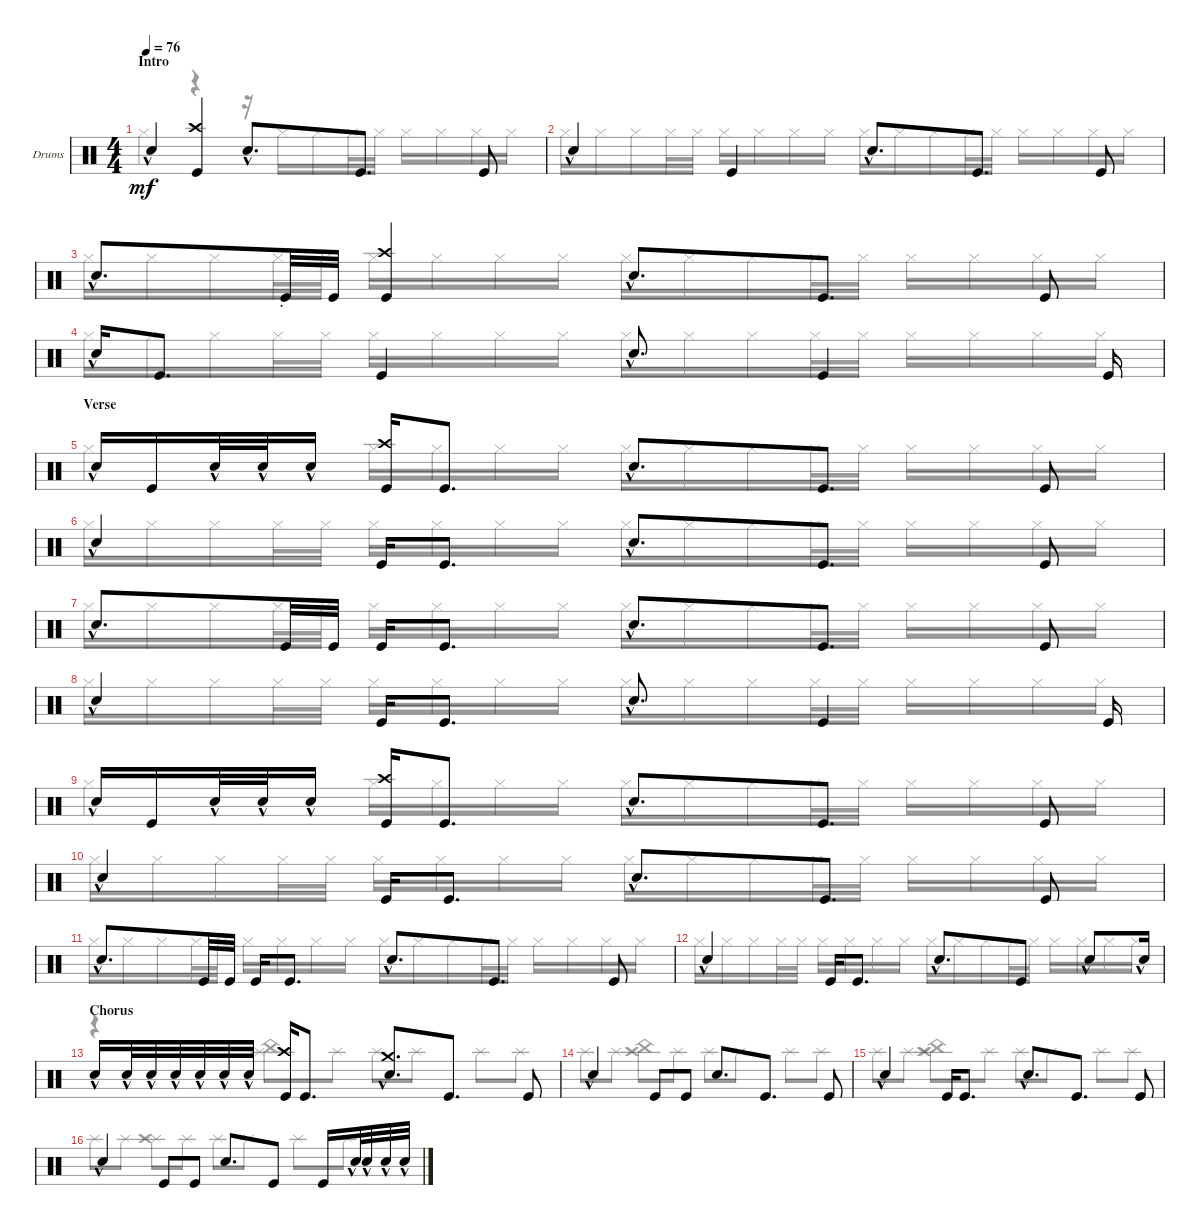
\defaultSystemsLayout 4
\bracketExtendMode groupsimilarinstruments
\firstSystemTrackNameOrientation horizontal
\otherSystemsTrackNameOrientation horizontal
\track ("Drumkit" "Drums") {instrument percussion}
\staff {score}
\articulation defaults
\voice
\ts (4 4)
\section ("" "Intro")
\tempo 76
\clef neutral
\ks c "Snare (hit) 2"{hac}.4{dy mf}
("Crash high (hit)" "Kick (hit)").4 "Snare (hit) 2"{hac}.8{d} "Kick (hit)".8{d} "Kick (hit)".8 |
"Snare (hit) 2"{hac}.4 "Kick (hit)".4 "Snare (hit) 2"{hac}.8{d} "Kick (hit)".8{d} "Kick (hit)".8 |
"Snare (hit) 2"{hac}.8{d} "Kick (hit)"{st}.32 "Kick (hit)".32 ("Kick (hit)" "Crash high (hit)").4 "Snare (hit) 2"{hac}.8{d} "Kick (hit)".8{d} "Kick (hit)".8 |
"Snare (hit) 2"{hac}.16 "Kick (hit)".8{d} "Kick (hit)".4 "Snare (hit) 2"{hac}.8{d} "Kick (hit)".4 "Kick (hit)".16 |
\section ("" "Verse")
"Snare (hit) 2"{hac}.16 "Kick (hit)".16 "Snare (hit) 2"{hac}.32 "Snare (hit) 2"{hac}.32 "Snare (hit) 2"{hac}.16 ("Kick (hit)" "Crash high (hit)").16 "Kick (hit)".8{d} "Snare (hit) 2"{hac}.8{d} "Kick (hit)".8{d} "Kick (hit)".8 |
"Snare (hit) 2"{hac}.4 "Kick (hit)".16 "Kick (hit)".8{d} "Snare (hit) 2"{hac}.8{d} "Kick (hit)".8{d} "Kick (hit)".8 |
"Snare (hit) 2"{hac}.8{d} "Kick (hit)".32 "Kick (hit)".32 "Kick (hit)".16 "Kick (hit)".8{d} "Snare (hit) 2"{hac}.8{d} "Kick (hit)".8{d} "Kick (hit)".8 |
"Snare (hit) 2"{hac}.4 "Kick (hit)".16 "Kick (hit)".8{d} "Snare (hit) 2"{hac}.8{d} "Kick (hit)".4 "Kick (hit)".16 |
"Snare (hit) 2"{hac}.16 "Kick (hit)".16 "Snare (hit) 2"{hac}.32 "Snare (hit) 2"{hac}.32 "Snare (hit) 2"{hac}.16 ("Kick (hit)" "Crash high (hit)").16 "Kick (hit)".8{d} "Snare (hit) 2"{hac}.8{d} "Kick (hit)".8{d} "Kick (hit)".8 |
"Snare (hit) 2"{hac}.4 "Kick (hit)".16 "Kick (hit)".8{d} "Snare (hit) 2"{hac}.8{d} "Kick (hit)".8{d} "Kick (hit)".8 |
"Snare (hit) 2"{hac}.8{d} "Kick (hit)".32 "Kick (hit)".32 "Kick (hit)".16 "Kick (hit)".8{d} "Snare (hit) 2"{hac}.8{d} "Kick (hit)".8{d} "Kick (hit)".8 |
"Snare (hit) 2"{hac}.4 "Kick (hit)".16 "Kick (hit)".8{d} "Snare (hit) 2"{hac}.8{d} "Kick (hit)".8 "Snare (hit) 2"{hac}.8 "Snare (hit) 2"{hac}.16 |
\section ("" "Chorus")
"Snare (hit) 2"{hac}.16 "Snare (hit) 2"{hac}.32 "Snare (hit) 2"{hac}.32 "Snare (hit) 2"{hac}.32 "Snare (hit) 2"{hac}.32 "Snare (hit) 2"{hac}.32 "Snare (hit) 2"{hac}.32 ("Kick (hit)" "Crash high (hit)").16 "Kick (hit)".8{d} ("Snare (hit) 2"{hac} "Crash medium (hit)").8{d} "Kick (hit)".8{d} "Kick (hit)".8 |
"Snare (hit) 2"{hac}.4 "Kick (hit)".8 "Kick (hit)".8 "Snare (hit) 2".8{d} "Kick (hit)".8{d} "Kick (hit)".8 |
"Snare (hit) 2"{hac}.4 "Kick (hit)".16 "Kick (hit)".8{d} "Snare (hit) 2"{hac}.8{d} "Kick (hit)".8{d} "Kick (hit)".8 |
"Snare (hit) 2"{hac}.4 "Kick (hit)".8 "Kick (hit)".8 "Snare (hit) 2".8{d} "Kick (hit)".8 "Kick (hit)".16 "Snare (hit) 2"{hac}.32 "Snare (hit) 2"{hac}.32 "Snare (hit) 2"{hac}.32 "Snare (hit) 2"{hac}.32
\voice
\clef neutral
\ottava regular
\simile none
\ks c "Hi-Hat (closed)".4{dy mf}
r.4 r.16 "Hi-Hat (closed)".16 "Hi-Hat (closed)".16 "Hi-Hat (closed)".32 "Hi-Hat (closed)".32 "Hi-Hat (closed)".16 "Hi-Hat (closed)".16 "Hi-Hat (closed)".16 "Hi-Hat (closed)".16 |
"Hi-Hat (closed)".16 "Hi-Hat (closed)".16 "Hi-Hat (closed)".16 "Hi-Hat (closed)".32 "Hi-Hat (closed)".32 "Hi-Hat (closed)".16 "Hi-Hat (closed)".16 "Hi-Hat (closed)".16 "Hi-Hat (closed)".16 "Hi-Hat (closed)".16 "Hi-Hat (closed)".16 "Hi-Hat (closed)".16 "Hi-Hat (closed)".32 "Hi-Hat (closed)".32 "Hi-Hat (closed)".16 "Hi-Hat (closed)".16 "Hi-Hat (closed)".16 "Hi-Hat (closed)".16 |
"Hi-Hat (closed)".16 "Hi-Hat (closed)".16 "Hi-Hat (closed)".16 "Hi-Hat (closed)".32 "Hi-Hat (closed)".32 "Hi-Hat (closed)".16 "Hi-Hat (closed)".16 "Hi-Hat (closed)".16 "Hi-Hat (closed)".16 "Hi-Hat (closed)".16 "Hi-Hat (closed)".16 "Hi-Hat (closed)".16 "Hi-Hat (closed)".32 "Hi-Hat (closed)".32 "Hi-Hat (closed)".16 "Hi-Hat (closed)".16 "Hi-Hat (closed)".16 "Hi-Hat (closed)".16 |
"Hi-Hat (closed)".16 "Hi-Hat (closed)".16 "Hi-Hat (closed)".16 "Hi-Hat (closed)".32 "Hi-Hat (closed)".32 "Hi-Hat (closed)".16 "Hi-Hat (closed)".16 "Hi-Hat (closed)".16 "Hi-Hat (closed)".16 "Hi-Hat (closed)".16 "Hi-Hat (closed)".16 "Hi-Hat (closed)".16 "Hi-Hat (closed)".32 "Hi-Hat (closed)".32 "Hi-Hat (closed)".16 "Hi-Hat (closed)".16 "Hi-Hat (closed)".16 "Hi-Hat (closed)".16 |
"Hi-Hat (closed)".4 "Hi-Hat (closed)".16 "Hi-Hat (closed)".16 "Hi-Hat (closed)".16 "Hi-Hat (closed)".16 "Hi-Hat (closed)".16 "Hi-Hat (closed)".16 "Hi-Hat (closed)".16 "Hi-Hat (closed)".32 "Hi-Hat (closed)".32 "Hi-Hat (closed)".16 "Hi-Hat (closed)".16 "Hi-Hat (closed)".16 "Hi-Hat (closed)".16 |
"Hi-Hat (closed)".16 "Hi-Hat (closed)".16 "Hi-Hat (closed)".16 "Hi-Hat (closed)".32 "Hi-Hat (closed)".32 "Hi-Hat (closed)".16 "Hi-Hat (closed)".16 "Hi-Hat (closed)".16 "Hi-Hat (closed)".16 "Hi-Hat (closed)".16 "Hi-Hat (closed)".16 "Hi-Hat (closed)".16 "Hi-Hat (closed)".32 "Hi-Hat (closed)".32 "Hi-Hat (closed)".16 "Hi-Hat (closed)".16 "Hi-Hat (closed)".16 "Hi-Hat (closed)".16 |
"Hi-Hat (closed)".16 "Hi-Hat (closed)".16 "Hi-Hat (closed)".16 "Hi-Hat (closed)".32 "Hi-Hat (closed)".32 "Hi-Hat (closed)".16 "Hi-Hat (closed)".16 "Hi-Hat (closed)".16 "Hi-Hat (closed)".16 "Hi-Hat (closed)".16 "Hi-Hat (closed)".16 "Hi-Hat (closed)".16 "Hi-Hat (closed)".32 "Hi-Hat (closed)".32 "Hi-Hat (closed)".16 "Hi-Hat (closed)".16 "Hi-Hat (closed)".16 "Hi-Hat (closed)".16 |
"Hi-Hat (closed)".16 "Hi-Hat (closed)".16 "Hi-Hat (closed)".16 "Hi-Hat (closed)".32 "Hi-Hat (closed)".32 "Hi-Hat (closed)".16 "Hi-Hat (closed)".16 "Hi-Hat (closed)".16 "Hi-Hat (closed)".16 "Hi-Hat (closed)".16 "Hi-Hat (closed)".16 "Hi-Hat (closed)".16 "Hi-Hat (closed)".32 "Hi-Hat (closed)".32 "Hi-Hat (closed)".16 "Hi-Hat (closed)".16 "Hi-Hat (closed)".16 "Hi-Hat (closed)".16 |
"Hi-Hat (closed)".4 "Hi-Hat (closed)".16 "Hi-Hat (closed)".16 "Hi-Hat (closed)".16 "Hi-Hat (closed)".16 "Hi-Hat (closed)".16 "Hi-Hat (closed)".16 "Hi-Hat (closed)".16 "Hi-Hat (closed)".32 "Hi-Hat (closed)".32 "Hi-Hat (closed)".16 "Hi-Hat (closed)".16 "Hi-Hat (closed)".16 "Hi-Hat (closed)".16 |
"Hi-Hat (closed)".16 "Hi-Hat (closed)".16 "Hi-Hat (closed)".16 "Hi-Hat (closed)".32 "Hi-Hat (closed)".32 "Hi-Hat (closed)".16 "Hi-Hat (closed)".16 "Hi-Hat (closed)".16 "Hi-Hat (closed)".16 "Hi-Hat (closed)".16 "Hi-Hat (closed)".16 "Hi-Hat (closed)".16 "Hi-Hat (closed)".32 "Hi-Hat (closed)".32 "Hi-Hat (closed)".16 "Hi-Hat (closed)".16 "Hi-Hat (closed)".16 "Hi-Hat (closed)".16 |
"Hi-Hat (closed)".16 "Hi-Hat (closed)".16 "Hi-Hat (closed)".16 "Hi-Hat (closed)".32 "Hi-Hat (closed)".32 "Hi-Hat (closed)".16 "Hi-Hat (closed)".16 "Hi-Hat (closed)".16 "Hi-Hat (closed)".16 "Hi-Hat (closed)".16 "Hi-Hat (closed)".16 "Hi-Hat (closed)".16 "Hi-Hat (closed)".32 "Hi-Hat (closed)".32 "Hi-Hat (closed)".16 "Hi-Hat (closed)".16 "Hi-Hat (closed)".16 "Hi-Hat (closed)".16 |
"Hi-Hat (closed)".16 "Hi-Hat (closed)".16 "Hi-Hat (closed)".16 "Hi-Hat (closed)".32 "Hi-Hat (closed)".32 "Hi-Hat (closed)".16 "Hi-Hat (closed)".16 "Hi-Hat (closed)".16 "Hi-Hat (closed)".16 "Hi-Hat (closed)".16 "Hi-Hat (closed)".16 "Hi-Hat (closed)".16 "Hi-Hat (closed)".32 "Hi-Hat (closed)".32 "Hi-Hat (closed)".16 "Hi-Hat (closed)".16 "Hi-Hat (closed)".16 "Hi-Hat (closed)".16 |
r.4 ("Splash (hit)" "China (hit)").8 "Splash (hit)".8 "Splash (hit)".8 "Splash (hit)".8 "Splash (hit)".8 "Splash (hit)".8 |
"Splash (hit)".8 "Splash (hit)".8 ("China (hit)" "Crash high (hit)").8 "Splash (hit)".8 "Splash (hit)".8 "Splash (hit)".8 "Splash (hit)".8 "Splash (hit)".8 |
"Splash (hit)".8 "Splash (hit)".8 ("Splash (hit)" "China (hit)" "Crash high (hit)").8 "Splash (hit)".8 "Splash (hit)".8 "Splash (hit)".8 "Splash (hit)".8 "Splash (hit)".8 |
"Splash (hit)".8 "Splash (hit)".8 ("Splash (hit)" "Crash high (hit)").8 "Splash (hit)".8 "Splash (hit)".8 "Splash (hit)".8 "Splash (hit)".8 "Splash (hit)".8
